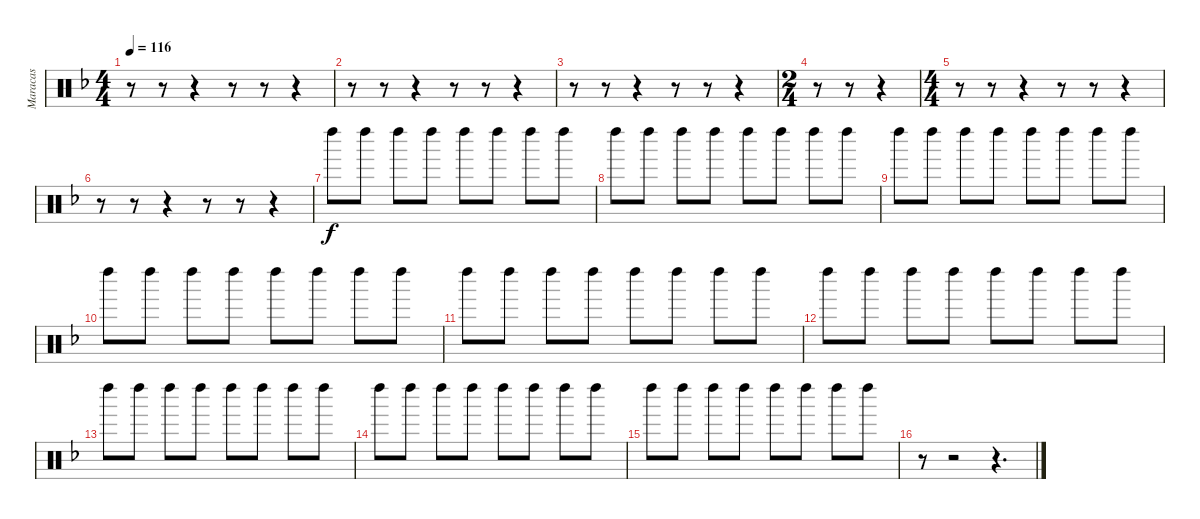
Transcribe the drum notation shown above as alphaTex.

\track ("Maracas" "Maracas") {instrument percussion}
\staff {score}
\articulation defaults
\ts (4 4)
\tempo 116
\clef neutral
\ks dminor
r.8{dy f} r.8 r.4 r.8 r.8 r.4 |
r.8 r.8 r.4 r.8 r.8 r.4 |
r.8 r.8 r.4 r.8 r.8 r.4 |
\ts (2 4)
r.8 r.8 r.4 |
\ts (4 4)
r.8 r.8 r.4 r.8 r.8 r.4 |
r.8 r.8 r.4 r.8 r.8 r.4 |
"Left Maraca (hit)".8 "Left Maraca (hit)".8 "Left Maraca (hit)".8 "Left Maraca (hit)".8 "Left Maraca (hit)".8 "Left Maraca (hit)".8 "Left Maraca (hit)".8 "Left Maraca (hit)".8 |
"Left Maraca (hit)".8 "Left Maraca (hit)".8 "Left Maraca (hit)".8 "Left Maraca (hit)".8 "Left Maraca (hit)".8 "Left Maraca (hit)".8 "Left Maraca (hit)".8 "Left Maraca (hit)".8 |
"Left Maraca (hit)".8 "Left Maraca (hit)".8 "Left Maraca (hit)".8 "Left Maraca (hit)".8 "Left Maraca (hit)".8 "Left Maraca (hit)".8 "Left Maraca (hit)".8 "Left Maraca (hit)".8 |
"Left Maraca (hit)".8 "Left Maraca (hit)".8 "Left Maraca (hit)".8 "Left Maraca (hit)".8 "Left Maraca (hit)".8 "Left Maraca (hit)".8 "Left Maraca (hit)".8 "Left Maraca (hit)".8 |
"Left Maraca (hit)".8 "Left Maraca (hit)".8 "Left Maraca (hit)".8 "Left Maraca (hit)".8 "Left Maraca (hit)".8 "Left Maraca (hit)".8 "Left Maraca (hit)".8 "Left Maraca (hit)".8 |
"Left Maraca (hit)".8 "Left Maraca (hit)".8 "Left Maraca (hit)".8 "Left Maraca (hit)".8 "Left Maraca (hit)".8 "Left Maraca (hit)".8 "Left Maraca (hit)".8 "Left Maraca (hit)".8 |
"Left Maraca (hit)".8 "Left Maraca (hit)".8 "Left Maraca (hit)".8 "Left Maraca (hit)".8 "Left Maraca (hit)".8 "Left Maraca (hit)".8 "Left Maraca (hit)".8 "Left Maraca (hit)".8 |
"Left Maraca (hit)".8 "Left Maraca (hit)".8 "Left Maraca (hit)".8 "Left Maraca (hit)".8 "Left Maraca (hit)".8 "Left Maraca (hit)".8 "Left Maraca (hit)".8 "Left Maraca (hit)".8 |
"Left Maraca (hit)".8 "Left Maraca (hit)".8 "Left Maraca (hit)".8 "Left Maraca (hit)".8 "Left Maraca (hit)".8 "Left Maraca (hit)".8 "Left Maraca (hit)".8 "Left Maraca (hit)".8 |
r.8 r.2 r.4{d}
